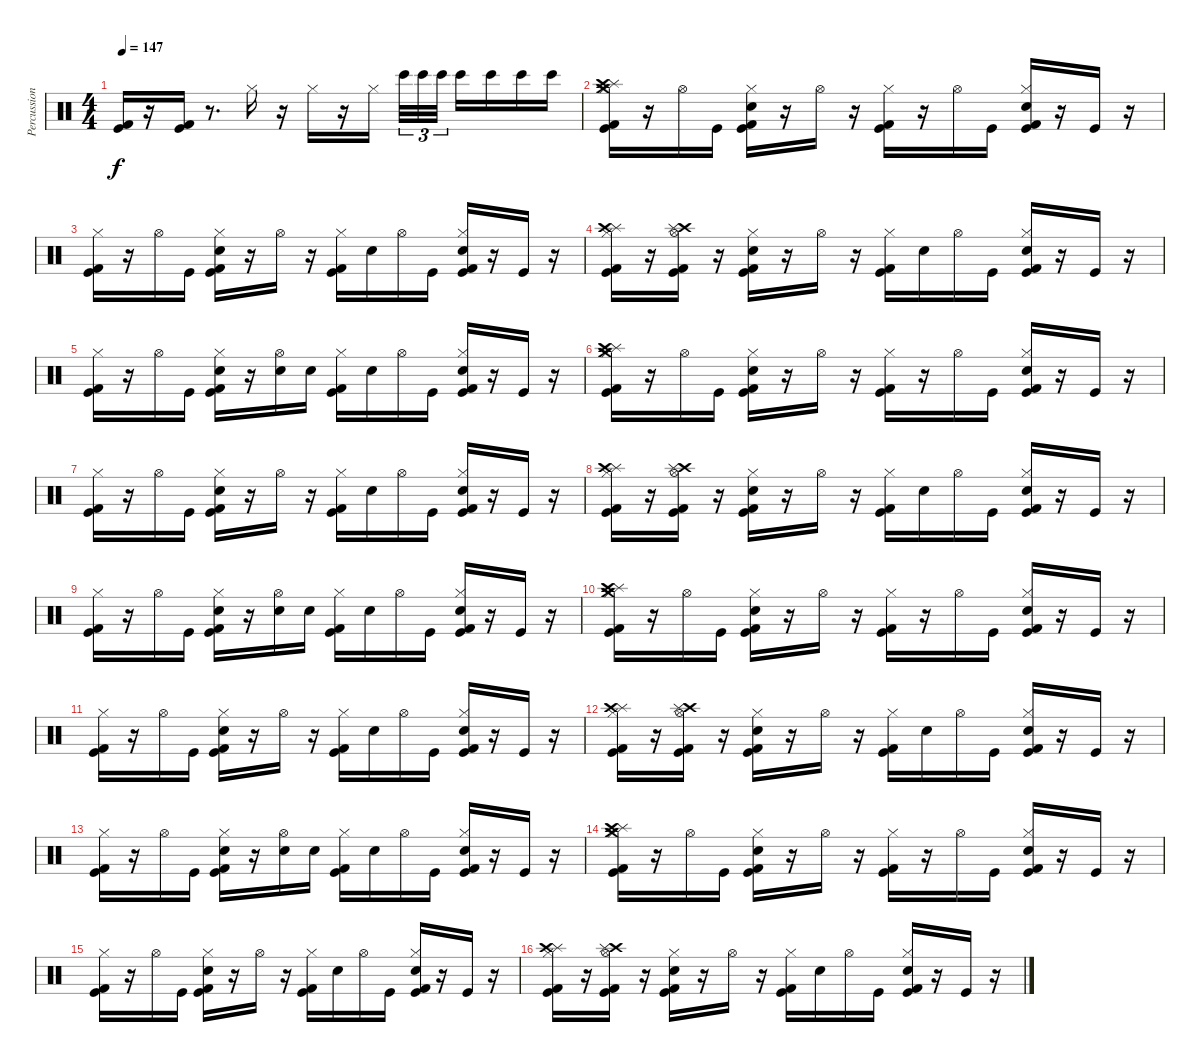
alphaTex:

\track ("Percussion (Room Kit)" "Percussion") {instrument percussion}
\staff {score}
\articulation defaults
\ts (4 4)
\tempo 147
\clef neutral
\ks c
("Kick (hit) 2" "Kick (hit)").16{dy f} r.16 ("Kick (hit) 2" "Kick (hit)").16 r.8{d} "Hi-Hat (closed)".16 r.16 "Hi-Hat (closed)".16 r.16 "Hi-Hat (closed)".16{beam splitsecondary} "Bongo High (hit)".32{tu (3 2)} "Bongo High (hit)".32{tu (3 2)} "Bongo High (hit)".32{tu (3 2)} "Bongo High (hit)".16 "Bongo High (hit)".16 "Bongo High (hit)".16 "Bongo High (hit)".16 |
("Crash medium (hit)" "Splash (hit)" "Crash high (hit)" "Kick (hit) 2" "Kick (hit)" "Hi-Hat (closed)").16 r.16 "Hi-Hat (open)".16 "Kick (hit)".16 ("Kick (hit) 2" "Kick (hit)" "Hand Clap (hit)" "Hi-Hat (closed)").16 r.16 "Hi-Hat (open)".16 r.16 ("Kick (hit) 2" "Kick (hit)" "Hi-Hat (closed)").16 r.16 "Hi-Hat (open)".16 "Kick (hit)".16 ("Kick (hit) 2" "Kick (hit)" "Hi-Hat (closed)" "Hand Clap (hit)").16 r.16 "Kick (hit)".16 r.16 |
("Kick (hit) 2" "Kick (hit)" "Hi-Hat (closed)").16 r.16 "Hi-Hat (open)".16 "Kick (hit)".16 ("Kick (hit) 2" "Kick (hit)" "Hand Clap (hit)" "Hi-Hat (closed)").16 r.16 "Hi-Hat (open)".16 r.16 ("Kick (hit) 2" "Kick (hit)" "Hi-Hat (closed)").16 "Hand Clap (hit)".16 "Hi-Hat (open)".16 "Kick (hit)".16 ("Kick (hit) 2" "Kick (hit)" "Hi-Hat (closed)" "Hand Clap (hit)").16 r.16 "Kick (hit)".16 r.16 |
("Splash (hit)" "Crash high (hit)" "Kick (hit) 2" "Kick (hit)" "Hi-Hat (closed)").16 r.16 ("Hi-Hat (open)" "Kick (hit)" "Kick (hit) 2" "Crash high (hit)" "Splash (hit)").16 r.16 ("Kick (hit) 2" "Kick (hit)" "Hand Clap (hit)" "Hi-Hat (closed)").16 r.16 "Hi-Hat (open)".16 r.16 ("Kick (hit) 2" "Kick (hit)" "Hi-Hat (closed)").16 "Hand Clap (hit)".16 "Hi-Hat (open)".16 "Kick (hit)".16 ("Kick (hit) 2" "Kick (hit)" "Hi-Hat (closed)" "Hand Clap (hit)").16 r.16 "Kick (hit)".16 r.16 |
("Kick (hit) 2" "Kick (hit)" "Hi-Hat (closed)").16 r.16 "Hi-Hat (open)".16 "Kick (hit)".16 ("Kick (hit) 2" "Kick (hit)" "Hand Clap (hit)" "Hi-Hat (closed)").16 r.16 ("Hi-Hat (open)" "Hand Clap (hit)").16 "Hand Clap (hit)".16 ("Kick (hit) 2" "Kick (hit)" "Hi-Hat (closed)").16 "Hand Clap (hit)".16 "Hi-Hat (open)".16 "Kick (hit)".16 ("Kick (hit) 2" "Kick (hit)" "Hi-Hat (closed)" "Hand Clap (hit)").16 r.16 "Kick (hit)".16 r.16 |
("Crash medium (hit)" "Splash (hit)" "Crash high (hit)" "Kick (hit) 2" "Kick (hit)" "Hi-Hat (closed)").16 r.16 "Hi-Hat (open)".16 "Kick (hit)".16 ("Kick (hit) 2" "Kick (hit)" "Hand Clap (hit)" "Hi-Hat (closed)").16 r.16 "Hi-Hat (open)".16 r.16 ("Kick (hit) 2" "Kick (hit)" "Hi-Hat (closed)").16 r.16 "Hi-Hat (open)".16 "Kick (hit)".16 ("Kick (hit) 2" "Kick (hit)" "Hi-Hat (closed)" "Hand Clap (hit)").16 r.16 "Kick (hit)".16 r.16 |
("Kick (hit) 2" "Kick (hit)" "Hi-Hat (closed)").16 r.16 "Hi-Hat (open)".16 "Kick (hit)".16 ("Kick (hit) 2" "Kick (hit)" "Hand Clap (hit)" "Hi-Hat (closed)").16 r.16 "Hi-Hat (open)".16 r.16 ("Kick (hit) 2" "Kick (hit)" "Hi-Hat (closed)").16 "Hand Clap (hit)".16 "Hi-Hat (open)".16 "Kick (hit)".16 ("Kick (hit) 2" "Kick (hit)" "Hi-Hat (closed)" "Hand Clap (hit)").16 r.16 "Kick (hit)".16 r.16 |
("Splash (hit)" "Crash high (hit)" "Kick (hit) 2" "Kick (hit)" "Hi-Hat (closed)").16 r.16 ("Hi-Hat (open)" "Kick (hit)" "Kick (hit) 2" "Crash high (hit)" "Splash (hit)").16 r.16 ("Kick (hit) 2" "Kick (hit)" "Hand Clap (hit)" "Hi-Hat (closed)").16 r.16 "Hi-Hat (open)".16 r.16 ("Kick (hit) 2" "Kick (hit)" "Hi-Hat (closed)").16 "Hand Clap (hit)".16 "Hi-Hat (open)".16 "Kick (hit)".16 ("Kick (hit) 2" "Kick (hit)" "Hi-Hat (closed)" "Hand Clap (hit)").16 r.16 "Kick (hit)".16 r.16 |
("Kick (hit) 2" "Kick (hit)" "Hi-Hat (closed)").16 r.16 "Hi-Hat (open)".16 "Kick (hit)".16 ("Kick (hit) 2" "Kick (hit)" "Hand Clap (hit)" "Hi-Hat (closed)").16 r.16 ("Hi-Hat (open)" "Hand Clap (hit)").16 "Hand Clap (hit)".16 ("Kick (hit) 2" "Kick (hit)" "Hi-Hat (closed)").16 "Hand Clap (hit)".16 "Hi-Hat (open)".16 "Kick (hit)".16 ("Kick (hit) 2" "Kick (hit)" "Hi-Hat (closed)" "Hand Clap (hit)").16 r.16 "Kick (hit)".16 r.16 |
("Crash medium (hit)" "Splash (hit)" "Crash high (hit)" "Kick (hit) 2" "Kick (hit)" "Hi-Hat (closed)").16 r.16 "Hi-Hat (open)".16 "Kick (hit)".16 ("Kick (hit) 2" "Kick (hit)" "Hand Clap (hit)" "Hi-Hat (closed)").16 r.16 "Hi-Hat (open)".16 r.16 ("Kick (hit) 2" "Kick (hit)" "Hi-Hat (closed)").16 r.16 "Hi-Hat (open)".16 "Kick (hit)".16 ("Kick (hit) 2" "Kick (hit)" "Hi-Hat (closed)" "Hand Clap (hit)").16 r.16 "Kick (hit)".16 r.16 |
("Kick (hit) 2" "Kick (hit)" "Hi-Hat (closed)").16 r.16 "Hi-Hat (open)".16 "Kick (hit)".16 ("Kick (hit) 2" "Kick (hit)" "Hand Clap (hit)" "Hi-Hat (closed)").16 r.16 "Hi-Hat (open)".16 r.16 ("Kick (hit) 2" "Kick (hit)" "Hi-Hat (closed)").16 "Hand Clap (hit)".16 "Hi-Hat (open)".16 "Kick (hit)".16 ("Kick (hit) 2" "Kick (hit)" "Hi-Hat (closed)" "Hand Clap (hit)").16 r.16 "Kick (hit)".16 r.16 |
("Splash (hit)" "Crash high (hit)" "Kick (hit) 2" "Kick (hit)" "Hi-Hat (closed)").16 r.16 ("Hi-Hat (open)" "Kick (hit)" "Kick (hit) 2" "Crash high (hit)" "Splash (hit)").16 r.16 ("Kick (hit) 2" "Kick (hit)" "Hand Clap (hit)" "Hi-Hat (closed)").16 r.16 "Hi-Hat (open)".16 r.16 ("Kick (hit) 2" "Kick (hit)" "Hi-Hat (closed)").16 "Hand Clap (hit)".16 "Hi-Hat (open)".16 "Kick (hit)".16 ("Kick (hit) 2" "Kick (hit)" "Hi-Hat (closed)" "Hand Clap (hit)").16 r.16 "Kick (hit)".16 r.16 |
("Kick (hit) 2" "Kick (hit)" "Hi-Hat (closed)").16 r.16 "Hi-Hat (open)".16 "Kick (hit)".16 ("Kick (hit) 2" "Kick (hit)" "Hand Clap (hit)" "Hi-Hat (closed)").16 r.16 ("Hi-Hat (open)" "Hand Clap (hit)").16 "Hand Clap (hit)".16 ("Kick (hit) 2" "Kick (hit)" "Hi-Hat (closed)").16 "Hand Clap (hit)".16 "Hi-Hat (open)".16 "Kick (hit)".16 ("Kick (hit) 2" "Kick (hit)" "Hi-Hat (closed)" "Hand Clap (hit)").16 r.16 "Kick (hit)".16 r.16 |
("Crash medium (hit)" "Splash (hit)" "Crash high (hit)" "Kick (hit) 2" "Kick (hit)" "Hi-Hat (closed)").16 r.16 "Hi-Hat (open)".16 "Kick (hit)".16 ("Kick (hit) 2" "Kick (hit)" "Hand Clap (hit)" "Hi-Hat (closed)").16 r.16 "Hi-Hat (open)".16 r.16 ("Kick (hit) 2" "Kick (hit)" "Hi-Hat (closed)").16 r.16 "Hi-Hat (open)".16 "Kick (hit)".16 ("Kick (hit) 2" "Kick (hit)" "Hi-Hat (closed)" "Hand Clap (hit)").16 r.16 "Kick (hit)".16 r.16 |
("Kick (hit) 2" "Kick (hit)" "Hi-Hat (closed)").16 r.16 "Hi-Hat (open)".16 "Kick (hit)".16 ("Kick (hit) 2" "Kick (hit)" "Hand Clap (hit)" "Hi-Hat (closed)").16 r.16 "Hi-Hat (open)".16 r.16 ("Kick (hit) 2" "Kick (hit)" "Hi-Hat (closed)").16 "Hand Clap (hit)".16 "Hi-Hat (open)".16 "Kick (hit)".16 ("Kick (hit) 2" "Kick (hit)" "Hi-Hat (closed)" "Hand Clap (hit)").16 r.16 "Kick (hit)".16 r.16 |
("Splash (hit)" "Crash high (hit)" "Kick (hit) 2" "Kick (hit)" "Hi-Hat (closed)").16 r.16 ("Hi-Hat (open)" "Kick (hit)" "Kick (hit) 2" "Crash high (hit)" "Splash (hit)").16 r.16 ("Kick (hit) 2" "Kick (hit)" "Hand Clap (hit)" "Hi-Hat (closed)").16 r.16 "Hi-Hat (open)".16 r.16 ("Kick (hit) 2" "Kick (hit)" "Hi-Hat (closed)").16 "Hand Clap (hit)".16 "Hi-Hat (open)".16 "Kick (hit)".16 ("Kick (hit) 2" "Kick (hit)" "Hi-Hat (closed)" "Hand Clap (hit)").16 r.16 "Kick (hit)".16 r.16
